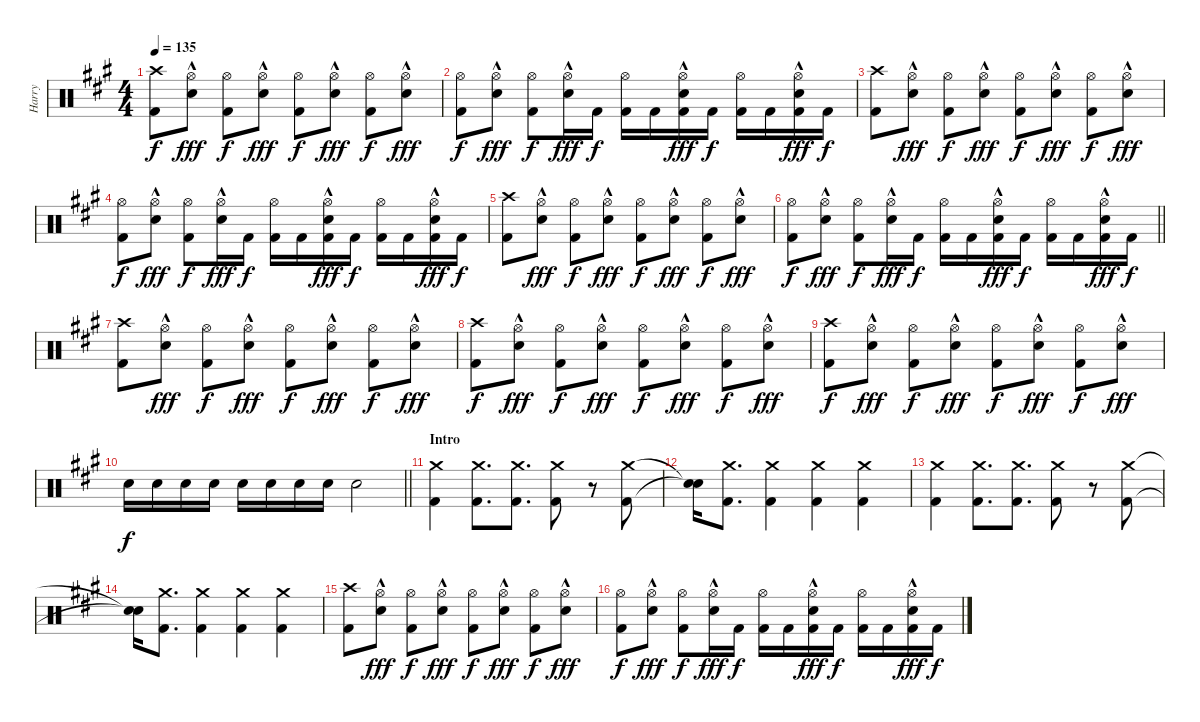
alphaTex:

\track ("Harry" "Harry") {instrument percussion}
\staff {score}
\articulation defaults
\ts (4 4)
\tempo 135
\clef neutral
\ks a
("Crash high (hit)" "Kick (hit) 2").8{dy f} ("Hi-Hat (open)"{hac} "Snare (hit) 2"{hac}).8{dy fff} ("Hi-Hat (open)" "Kick (hit) 2").8{dy f} ("Hi-Hat (open)"{hac} "Snare (hit) 2"{hac}).8{dy fff} ("Hi-Hat (open)" "Kick (hit) 2").8{dy f} ("Hi-Hat (open)"{hac} "Snare (hit) 2"{hac}).8{dy fff} ("Hi-Hat (open)" "Kick (hit) 2").8{dy f} ("Hi-Hat (open)"{hac} "Snare (hit) 2"{hac}).8{dy fff} |
("Hi-Hat (open)" "Kick (hit) 2").8{dy f} ("Hi-Hat (open)"{hac} "Snare (hit) 2"{hac}).8{dy fff} ("Hi-Hat (open)" "Kick (hit) 2").8{dy f} ("Hi-Hat (open)"{hac} "Snare (hit) 2"{hac}).16{dy fff} "Kick (hit) 2".16{dy f} ("Hi-Hat (open)" "Kick (hit) 2").16 "Kick (hit) 2".16 ("Snare (hit) 2"{hac} "Hi-Hat (open)"{hac} "Kick (hit) 2"{hac}).16{dy fff} "Kick (hit) 2".16{dy f} ("Hi-Hat (open)" "Kick (hit) 2").16 "Kick (hit) 2".16 ("Snare (hit) 2"{hac} "Hi-Hat (open)"{hac} "Kick (hit) 2"{hac}).16{dy fff} "Kick (hit) 2".16{dy f} |
("Crash high (hit)" "Kick (hit) 2").8 ("Hi-Hat (open)"{hac} "Snare (hit) 2"{hac}).8{dy fff} ("Hi-Hat (open)" "Kick (hit) 2").8{dy f} ("Hi-Hat (open)"{hac} "Snare (hit) 2"{hac}).8{dy fff} ("Hi-Hat (open)" "Kick (hit) 2").8{dy f} ("Hi-Hat (open)"{hac} "Snare (hit) 2"{hac}).8{dy fff} ("Hi-Hat (open)" "Kick (hit) 2").8{dy f} ("Hi-Hat (open)"{hac} "Snare (hit) 2"{hac}).8{dy fff} |
("Hi-Hat (open)" "Kick (hit) 2").8{dy f} ("Hi-Hat (open)"{hac} "Snare (hit) 2"{hac}).8{dy fff} ("Hi-Hat (open)" "Kick (hit) 2").8{dy f} ("Hi-Hat (open)"{hac} "Snare (hit) 2"{hac}).16{dy fff} "Kick (hit) 2".16{dy f} ("Hi-Hat (open)" "Kick (hit) 2").16 "Kick (hit) 2".16 ("Snare (hit) 2"{hac} "Hi-Hat (open)"{hac} "Kick (hit) 2"{hac}).16{dy fff} "Kick (hit) 2".16{dy f} ("Hi-Hat (open)" "Kick (hit) 2").16 "Kick (hit) 2".16 ("Snare (hit) 2"{hac} "Hi-Hat (open)"{hac} "Kick (hit) 2"{hac}).16{dy fff} "Kick (hit) 2".16{dy f} |
("Crash high (hit)" "Kick (hit) 2").8 ("Hi-Hat (open)"{hac} "Snare (hit) 2"{hac}).8{dy fff} ("Hi-Hat (open)" "Kick (hit) 2").8{dy f} ("Hi-Hat (open)"{hac} "Snare (hit) 2"{hac}).8{dy fff} ("Hi-Hat (open)" "Kick (hit) 2").8{dy f} ("Hi-Hat (open)"{hac} "Snare (hit) 2"{hac}).8{dy fff} ("Hi-Hat (open)" "Kick (hit) 2").8{dy f} ("Hi-Hat (open)"{hac} "Snare (hit) 2"{hac}).8{dy fff} |
\barLineRight lightlight
("Hi-Hat (open)" "Kick (hit) 2").8{dy f} ("Hi-Hat (open)"{hac} "Snare (hit) 2"{hac}).8{dy fff} ("Hi-Hat (open)" "Kick (hit) 2").8{dy f} ("Hi-Hat (open)"{hac} "Snare (hit) 2"{hac}).16{dy fff} "Kick (hit) 2".16{dy f} ("Hi-Hat (open)" "Kick (hit) 2").16 "Kick (hit) 2".16 ("Snare (hit) 2"{hac} "Hi-Hat (open)"{hac} "Kick (hit) 2"{hac}).16{dy fff} "Kick (hit) 2".16{dy f} ("Hi-Hat (open)" "Kick (hit) 2").16 "Kick (hit) 2".16 ("Snare (hit) 2"{hac} "Hi-Hat (open)"{hac} "Kick (hit) 2"{hac}).16{dy fff} "Kick (hit) 2".16{dy f} |
("Crash high (hit)" "Kick (hit) 2").8 ("Hi-Hat (open)"{hac} "Snare (hit) 2"{hac}).8{dy fff} ("Hi-Hat (open)" "Kick (hit) 2").8{dy f} ("Hi-Hat (open)"{hac} "Snare (hit) 2"{hac}).8{dy fff} ("Hi-Hat (open)" "Kick (hit) 2").8{dy f} ("Hi-Hat (open)"{hac} "Snare (hit) 2"{hac}).8{dy fff} ("Hi-Hat (open)" "Kick (hit) 2").8{dy f} ("Hi-Hat (open)"{hac} "Snare (hit) 2"{hac}).8{dy fff} |
("Crash high (hit)" "Kick (hit) 2").8{dy f} ("Hi-Hat (open)"{hac} "Snare (hit) 2"{hac}).8{dy fff} ("Hi-Hat (open)" "Kick (hit) 2").8{dy f} ("Hi-Hat (open)"{hac} "Snare (hit) 2"{hac}).8{dy fff} ("Hi-Hat (open)" "Kick (hit) 2").8{dy f} ("Hi-Hat (open)"{hac} "Snare (hit) 2"{hac}).8{dy fff} ("Hi-Hat (open)" "Kick (hit) 2").8{dy f} ("Hi-Hat (open)"{hac} "Snare (hit) 2"{hac}).8{dy fff} |
("Crash high (hit)" "Kick (hit) 2").8{dy f} ("Hi-Hat (open)"{hac} "Snare (hit) 2"{hac}).8{dy fff} ("Hi-Hat (open)" "Kick (hit) 2").8{dy f} ("Hi-Hat (open)"{hac} "Snare (hit) 2"{hac}).8{dy fff} ("Hi-Hat (open)" "Kick (hit) 2").8{dy f} ("Hi-Hat (open)"{hac} "Snare (hit) 2"{hac}).8{dy fff} ("Hi-Hat (open)" "Kick (hit) 2").8{dy f} ("Hi-Hat (open)"{hac} "Snare (hit) 2"{hac}).8{dy fff} |
\barLineRight lightlight "Snare (hit) 2".16{dy f} "Snare (hit) 2".16 "Snare (hit) 2".16 "Snare (hit) 2".16 "Snare (hit) 2".16 "Snare (hit) 2".16 "Snare (hit) 2".16 "Snare (hit) 2".16 "Snare (hit) 2".2
|
\section ("" "Intro")
("Crash medium (hit)" "Kick (hit) 2").4 ("Crash medium (hit)" "Kick (hit) 2").8{d} ("Crash medium (hit)" "Kick (hit) 2").8{d} ("Crash medium (hit)" "Kick (hit) 2").8 r.8 ("Crash medium (hit)" "Kick (hit) 2").8 |
("Snare (hit)"{t} "Snare (hit)"{t}).16 ("Crash medium (hit)" "Kick (hit) 2").8{d} ("Crash medium (hit)" "Kick (hit) 2").4 ("Crash medium (hit)" "Kick (hit) 2").4 ("Crash medium (hit)" "Kick (hit) 2").4 |
("Crash medium (hit)" "Kick (hit) 2").4 ("Crash medium (hit)" "Kick (hit) 2").8{d} ("Crash medium (hit)" "Kick (hit) 2").8{d} ("Crash medium (hit)" "Kick (hit) 2").8 r.8 ("Crash medium (hit)" "Kick (hit) 2").8 |
("Snare (hit)"{t} "Snare (hit)"{t}).16 ("Crash medium (hit)" "Kick (hit) 2").8{d} ("Crash medium (hit)" "Kick (hit) 2").4 ("Crash medium (hit)" "Kick (hit) 2").4 ("Crash medium (hit)" "Kick (hit) 2").4 |
("Crash high (hit)" "Kick (hit) 2").8 ("Hi-Hat (open)"{hac} "Snare (hit) 2"{hac}).8{dy fff} ("Hi-Hat (open)" "Kick (hit) 2").8{dy f} ("Hi-Hat (open)"{hac} "Snare (hit) 2"{hac}).8{dy fff} ("Hi-Hat (open)" "Kick (hit) 2").8{dy f} ("Hi-Hat (open)"{hac} "Snare (hit) 2"{hac}).8{dy fff} ("Hi-Hat (open)" "Kick (hit) 2").8{dy f} ("Hi-Hat (open)"{hac} "Snare (hit) 2"{hac}).8{dy fff} |
("Hi-Hat (open)" "Kick (hit) 2").8{dy f} ("Hi-Hat (open)"{hac} "Snare (hit) 2"{hac}).8{dy fff} ("Hi-Hat (open)" "Kick (hit) 2").8{dy f} ("Hi-Hat (open)"{hac} "Snare (hit) 2"{hac}).16{dy fff} "Kick (hit) 2".16{dy f} ("Hi-Hat (open)" "Kick (hit) 2").16 "Kick (hit) 2".16 ("Snare (hit) 2"{hac} "Hi-Hat (open)"{hac} "Kick (hit) 2"{hac}).16{dy fff} "Kick (hit) 2".16{dy f} ("Hi-Hat (open)" "Kick (hit) 2").16 "Kick (hit) 2".16 ("Snare (hit) 2"{hac} "Hi-Hat (open)"{hac} "Kick (hit) 2"{hac}).16{dy fff} "Kick (hit) 2".16{dy f}
